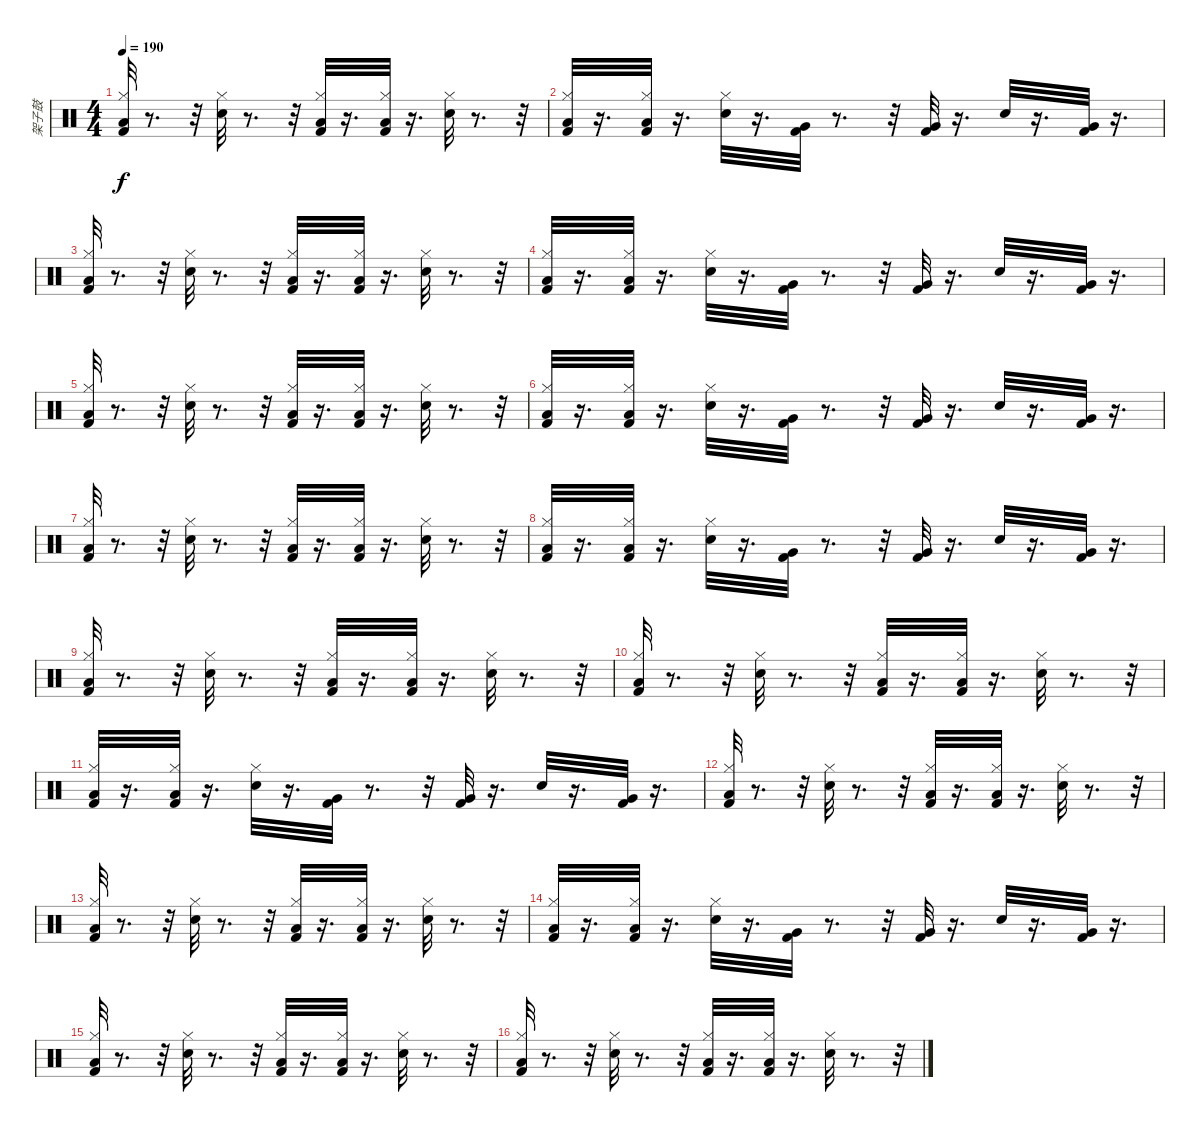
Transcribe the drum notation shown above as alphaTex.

\track ("架子鼓" "架子鼓") {instrument percussion}
\staff {score}
\articulation defaults
\ts (4 4)
\tempo 190
\clef neutral
\ks c
("Kick (hit) 2" "Hi-Hat (closed)" "Low Floor Tom (hit)").32{dy f} r.8{d} r.32 ("Hi-Hat (closed)" "Electric Snare (hit)").32 r.8{d} r.32 ("Kick (hit) 2" "Hi-Hat (closed)" "Low Floor Tom (hit)").32 r.16{d} ("Kick (hit) 2" "Hi-Hat (closed)" "Low Floor Tom (hit)").32 r.16{d} ("Hi-Hat (closed)" "Electric Snare (hit)").32 r.8{d} r.32 |
("Kick (hit) 2" "Hi-Hat (closed)" "Low Floor Tom (hit)").32 r.16{d} ("Kick (hit) 2" "Hi-Hat (closed)" "Low Floor Tom (hit)").32 r.16{d} ("Hi-Hat (closed)" "Electric Snare (hit)").32 r.16{d} ("Kick (hit) 2" "Very Low Tom (hit)").32 r.8{d} r.32 ("Kick (hit) 2" "Very Low Tom (hit)").32 r.16{d} "Snare (hit) 2".32 r.16{d} ("Kick (hit) 2" "Very Low Tom (hit)").32 r.16{d} |
("Kick (hit) 2" "Hi-Hat (closed)" "Low Floor Tom (hit)").32 r.8{d} r.32 ("Hi-Hat (closed)" "Electric Snare (hit)").32 r.8{d} r.32 ("Kick (hit) 2" "Hi-Hat (closed)" "Low Floor Tom (hit)").32 r.16{d} ("Kick (hit) 2" "Hi-Hat (closed)" "Low Floor Tom (hit)").32 r.16{d} ("Hi-Hat (closed)" "Electric Snare (hit)").32 r.8{d} r.32 |
("Kick (hit) 2" "Hi-Hat (closed)" "Low Floor Tom (hit)").32 r.16{d} ("Kick (hit) 2" "Hi-Hat (closed)" "Low Floor Tom (hit)").32 r.16{d} ("Hi-Hat (closed)" "Electric Snare (hit)").32 r.16{d} ("Kick (hit) 2" "Very Low Tom (hit)").32 r.8{d} r.32 ("Kick (hit) 2" "Very Low Tom (hit)").32 r.16{d} "Snare (hit) 2".32 r.16{d} ("Kick (hit) 2" "Very Low Tom (hit)").32 r.16{d} |
("Kick (hit) 2" "Hi-Hat (closed)" "Low Floor Tom (hit)").32 r.8{d} r.32 ("Hi-Hat (closed)" "Electric Snare (hit)").32 r.8{d} r.32 ("Kick (hit) 2" "Hi-Hat (closed)" "Low Floor Tom (hit)").32 r.16{d} ("Kick (hit) 2" "Hi-Hat (closed)" "Low Floor Tom (hit)").32 r.16{d} ("Hi-Hat (closed)" "Electric Snare (hit)").32 r.8{d} r.32 |
("Kick (hit) 2" "Hi-Hat (closed)" "Low Floor Tom (hit)").32 r.16{d} ("Kick (hit) 2" "Hi-Hat (closed)" "Low Floor Tom (hit)").32 r.16{d} ("Hi-Hat (closed)" "Electric Snare (hit)").32 r.16{d} ("Kick (hit) 2" "Very Low Tom (hit)").32 r.8{d} r.32 ("Kick (hit) 2" "Very Low Tom (hit)").32 r.16{d} "Snare (hit) 2".32 r.16{d} ("Kick (hit) 2" "Very Low Tom (hit)").32 r.16{d} |
("Kick (hit) 2" "Hi-Hat (closed)" "Low Floor Tom (hit)").32 r.8{d} r.32 ("Hi-Hat (closed)" "Electric Snare (hit)").32 r.8{d} r.32 ("Kick (hit) 2" "Hi-Hat (closed)" "Low Floor Tom (hit)").32 r.16{d} ("Kick (hit) 2" "Hi-Hat (closed)" "Low Floor Tom (hit)").32 r.16{d} ("Hi-Hat (closed)" "Electric Snare (hit)").32 r.8{d} r.32 |
("Kick (hit) 2" "Hi-Hat (closed)" "Low Floor Tom (hit)").32 r.16{d} ("Kick (hit) 2" "Hi-Hat (closed)" "Low Floor Tom (hit)").32 r.16{d} ("Hi-Hat (closed)" "Electric Snare (hit)").32 r.16{d} ("Kick (hit) 2" "Very Low Tom (hit)").32 r.8{d} r.32 ("Kick (hit) 2" "Very Low Tom (hit)").32 r.16{d} "Snare (hit) 2".32 r.16{d} ("Kick (hit) 2" "Very Low Tom (hit)").32 r.16{d} |
("Kick (hit) 2" "Hi-Hat (closed)" "Low Floor Tom (hit)").32 r.8{d} r.32 ("Hi-Hat (closed)" "Electric Snare (hit)").32 r.8{d} r.32 ("Kick (hit) 2" "Hi-Hat (closed)" "Low Floor Tom (hit)").32 r.16{d} ("Kick (hit) 2" "Hi-Hat (closed)" "Low Floor Tom (hit)").32 r.16{d} ("Hi-Hat (closed)" "Electric Snare (hit)").32 r.8{d} r.32 |
("Kick (hit) 2" "Hi-Hat (closed)" "Low Floor Tom (hit)").32 r.8{d} r.32 ("Hi-Hat (closed)" "Electric Snare (hit)").32 r.8{d} r.32 ("Kick (hit) 2" "Hi-Hat (closed)" "Low Floor Tom (hit)").32 r.16{d} ("Kick (hit) 2" "Hi-Hat (closed)" "Low Floor Tom (hit)").32 r.16{d} ("Hi-Hat (closed)" "Electric Snare (hit)").32 r.8{d} r.32 |
("Kick (hit) 2" "Hi-Hat (closed)" "Low Floor Tom (hit)").32 r.16{d} ("Kick (hit) 2" "Hi-Hat (closed)" "Low Floor Tom (hit)").32 r.16{d} ("Hi-Hat (closed)" "Electric Snare (hit)").32 r.16{d} ("Kick (hit) 2" "Very Low Tom (hit)").32 r.8{d} r.32 ("Kick (hit) 2" "Very Low Tom (hit)").32 r.16{d} "Snare (hit) 2".32 r.16{d} ("Kick (hit) 2" "Very Low Tom (hit)").32 r.16{d} |
("Kick (hit) 2" "Hi-Hat (closed)" "Low Floor Tom (hit)").32 r.8{d} r.32 ("Hi-Hat (closed)" "Electric Snare (hit)").32 r.8{d} r.32 ("Kick (hit) 2" "Hi-Hat (closed)" "Low Floor Tom (hit)").32 r.16{d} ("Kick (hit) 2" "Hi-Hat (closed)" "Low Floor Tom (hit)").32 r.16{d} ("Hi-Hat (closed)" "Electric Snare (hit)").32 r.8{d} r.32 |
("Kick (hit) 2" "Hi-Hat (closed)" "Low Floor Tom (hit)").32 r.8{d} r.32 ("Hi-Hat (closed)" "Electric Snare (hit)").32 r.8{d} r.32 ("Kick (hit) 2" "Hi-Hat (closed)" "Low Floor Tom (hit)").32 r.16{d} ("Kick (hit) 2" "Hi-Hat (closed)" "Low Floor Tom (hit)").32 r.16{d} ("Hi-Hat (closed)" "Electric Snare (hit)").32 r.8{d} r.32 |
("Kick (hit) 2" "Hi-Hat (closed)" "Low Floor Tom (hit)").32 r.16{d} ("Kick (hit) 2" "Hi-Hat (closed)" "Low Floor Tom (hit)").32 r.16{d} ("Hi-Hat (closed)" "Electric Snare (hit)").32 r.16{d} ("Kick (hit) 2" "Very Low Tom (hit)").32 r.8{d} r.32 ("Kick (hit) 2" "Very Low Tom (hit)").32 r.16{d} "Snare (hit) 2".32 r.16{d} ("Kick (hit) 2" "Very Low Tom (hit)").32 r.16{d} |
("Kick (hit) 2" "Hi-Hat (closed)" "Low Floor Tom (hit)").32 r.8{d} r.32 ("Hi-Hat (closed)" "Electric Snare (hit)").32 r.8{d} r.32 ("Kick (hit) 2" "Hi-Hat (closed)" "Low Floor Tom (hit)").32 r.16{d} ("Kick (hit) 2" "Hi-Hat (closed)" "Low Floor Tom (hit)").32 r.16{d} ("Hi-Hat (closed)" "Electric Snare (hit)").32 r.8{d} r.32 |
("Kick (hit) 2" "Hi-Hat (closed)" "Low Floor Tom (hit)").32 r.8{d} r.32 ("Hi-Hat (closed)" "Electric Snare (hit)").32 r.8{d} r.32 ("Kick (hit) 2" "Hi-Hat (closed)" "Low Floor Tom (hit)").32 r.16{d} ("Kick (hit) 2" "Hi-Hat (closed)" "Low Floor Tom (hit)").32 r.16{d} ("Hi-Hat (closed)" "Electric Snare (hit)").32 r.8{d} r.32
